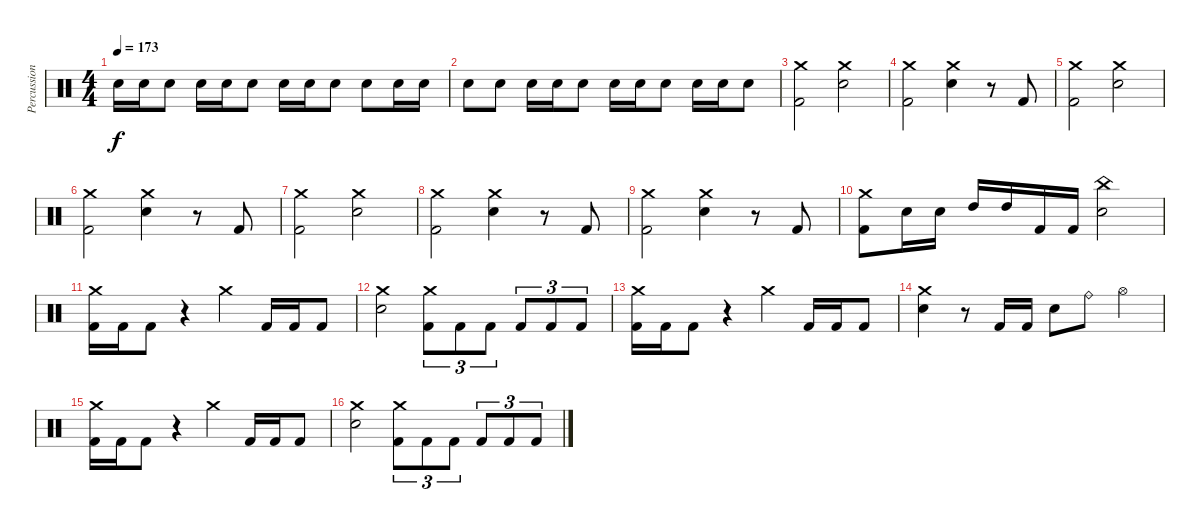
\track ("Percussion" "Percussion") {instrument percussion}
\staff {score}
\articulation defaults
\ts (4 4)
\tempo 173
\clef neutral
\ks c "Snare (hit) 2".16{dy f} "Snare (hit) 2".16 "Snare (hit) 2".8 "Snare (hit) 2".16 "Snare (hit) 2".16 "Snare (hit) 2".8 "Snare (hit) 2".16 "Snare (hit) 2".16 "Snare (hit) 2".8 "Snare (hit) 2".8 "Snare (hit) 2".16 "Snare (hit) 2".16
|
"Snare (hit) 2".8 "Snare (hit) 2".8 "Snare (hit) 2".16 "Snare (hit) 2".16 "Snare (hit) 2".8 "Snare (hit) 2".16 "Snare (hit) 2".16 "Snare (hit) 2".8 "Snare (hit) 2".16 "Snare (hit) 2".16 "Snare (hit) 2".8 |
("Crash medium (hit)" "Kick (hit) 2").2 ("Crash medium (hit)" "Snare (hit) 2").2 |
("Crash medium (hit)" "Kick (hit) 2").2 ("Crash medium (hit)" "Snare (hit) 2").4 r.8 "Kick (hit) 2".8 |
("Crash medium (hit)" "Kick (hit) 2").2 ("Crash medium (hit)" "Snare (hit) 2").2 |
("Crash medium (hit)" "Kick (hit) 2").2 ("Crash medium (hit)" "Snare (hit) 2").4 r.8 "Kick (hit) 2".8 |
("Crash medium (hit)" "Kick (hit) 2").2 ("Crash medium (hit)" "Snare (hit) 2").2 |
("Crash medium (hit)" "Kick (hit) 2").2 ("Crash medium (hit)" "Snare (hit) 2").4 r.8 "Kick (hit) 2".8 |
("Crash medium (hit)" "Kick (hit) 2").2 ("Crash medium (hit)" "Snare (hit) 2").4 r.8 "Kick (hit) 2".8 |
("Crash medium (hit)" "Kick (hit) 2").8 "Snare (hit) 2".16 "Snare (hit) 2".16 "High Tom (hit)".16 "High Tom (hit)".16 "Kick (hit) 2".16 "Kick (hit) 2".16 ("China (hit)" "Snare (hit) 2").2 |
("Crash medium (hit)" "Kick (hit) 2").16 "Kick (hit) 2".16 "Kick (hit) 2".8 r.4 "Crash medium (hit)".4 "Kick (hit) 2".16 "Kick (hit) 2".16 "Kick (hit) 2".8 |
("Crash medium (hit)" "Snare (hit) 2").2 ("Crash medium (hit)" "Kick (hit) 2").8{tu (3 2)} "Kick (hit) 2".8{tu (3 2)} "Kick (hit) 2".8{tu (3 2)} "Kick (hit) 2".8{tu (3 2)} "Kick (hit) 2".8{tu (3 2)} "Kick (hit) 2".8{tu (3 2)} |
("Crash medium (hit)" "Kick (hit) 2").16 "Kick (hit) 2".16 "Kick (hit) 2".8 r.4 "Crash medium (hit)".4 "Kick (hit) 2".16 "Kick (hit) 2".16 "Kick (hit) 2".8 |
("Crash medium (hit)" "Snare (hit) 2").4 r.8 "Kick (hit) 2".16 "Kick (hit) 2".16 "Snare (hit) 2".8 "Ride (bell)".8 "Hi-Hat (open)".4 |
("Crash medium (hit)" "Kick (hit) 2").16 "Kick (hit) 2".16 "Kick (hit) 2".8 r.4 "Crash medium (hit)".4 "Kick (hit) 2".16 "Kick (hit) 2".16 "Kick (hit) 2".8 |
("Crash medium (hit)" "Snare (hit) 2").2 ("Crash medium (hit)" "Kick (hit) 2").8{tu (3 2)} "Kick (hit) 2".8{tu (3 2)} "Kick (hit) 2".8{tu (3 2)} "Kick (hit) 2".8{tu (3 2)} "Kick (hit) 2".8{tu (3 2)} "Kick (hit) 2".8{tu (3 2)}
